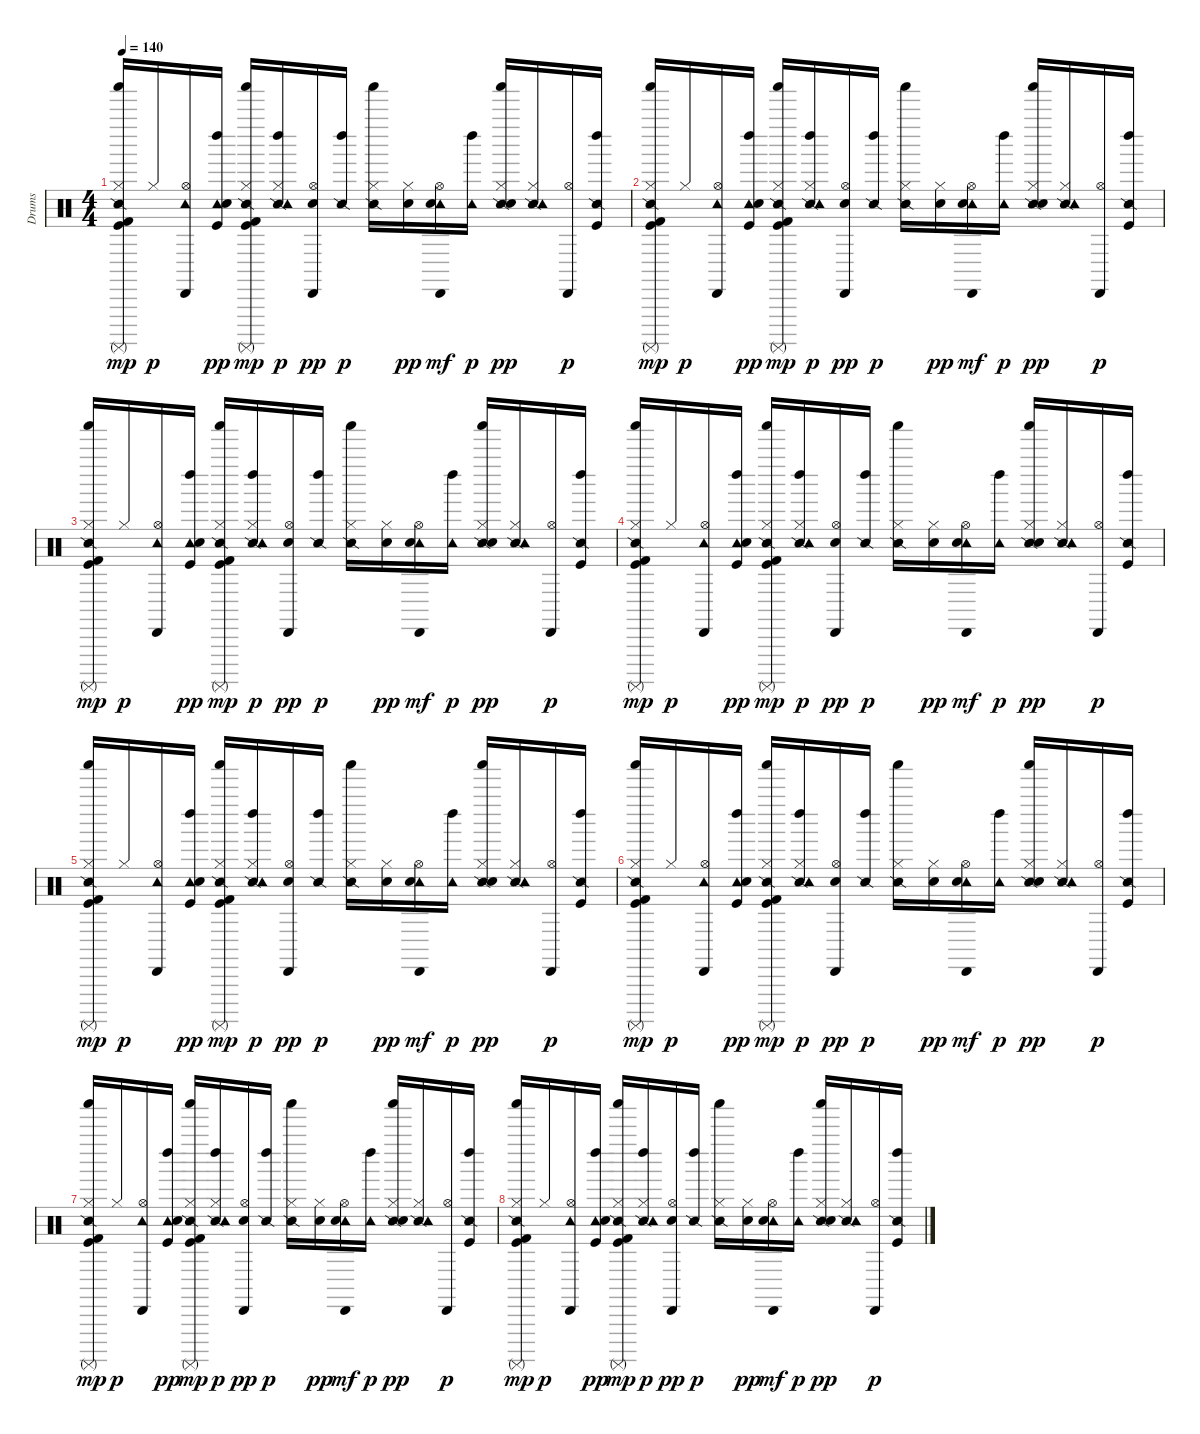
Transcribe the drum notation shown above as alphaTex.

\track ("Drums" "Drums") {instrument percussion}
\staff {score}
\articulation defaults
\ts (4 4)
\tempo 140
\clef neutral
\ks c
("Snare (side stick) 2" "Kick (hit)" "Kick (hit) 2" "Hi-Hat (closed)" "Shaker (hit)" "Surdo (mute)").16{dy mp} "Hi-Hat (closed)".16{dy p} ("Hi-Hat (open)" "Tambourine (hit)" "Cabasa (hit)").16 ("Kick (hit)" "Tambourine (hit)" "Left Maraca (hit)" "Electric Snare (hit)").16{dy pp} ("Snare (side stick) 2" "Kick (hit)" "Kick (hit) 2" "Hi-Hat (closed)" "Shaker (hit)" "Surdo (mute)").16{dy mp} ("Snare (side stick) 2" "Hi-Hat (closed)" "Tambourine (hit)" "Left Maraca (hit)").16{dy p} ("Hi-Hat (open)" "Cabasa (hit)" "Snare (hit) 2").16{dy pp} ("Snare (side stick) 2" "Left Maraca (hit)").16{dy p} ("Snare (side stick) 2" "Hi-Hat (closed)" "Shaker (hit)").16 ("Hi-Hat (closed)" "Electric Snare (hit)").16{dy pp} ("Hi-Hat (open)" "Tambourine (hit)" "Cabasa (hit)" "Snare (hit) 2").16{dy mf} ("Tambourine (hit)" "Left Maraca (hit)").16{dy p} ("Snare (side stick) 2" "Hi-Hat (closed)" "Shaker (hit)" "Electric Snare (hit)").16{dy pp} ("Snare (side stick) 2" "Hi-Hat (closed)" "Tambourine (hit)").16 ("Hi-Hat (open)" "Cabasa (hit)").16{dy p} ("Snare (side stick) 2" "Kick (hit)" "Left Maraca (hit)").16 |
("Snare (side stick) 2" "Kick (hit)" "Kick (hit) 2" "Hi-Hat (closed)" "Shaker (hit)" "Surdo (mute)").16{dy mp} "Hi-Hat (closed)".16{dy p} ("Hi-Hat (open)" "Tambourine (hit)" "Cabasa (hit)").16 ("Kick (hit)" "Tambourine (hit)" "Left Maraca (hit)" "Electric Snare (hit)").16{dy pp} ("Snare (side stick) 2" "Kick (hit)" "Kick (hit) 2" "Hi-Hat (closed)" "Shaker (hit)" "Surdo (mute)").16{dy mp} ("Snare (side stick) 2" "Hi-Hat (closed)" "Tambourine (hit)" "Left Maraca (hit)").16{dy p} ("Hi-Hat (open)" "Cabasa (hit)" "Snare (hit) 2").16{dy pp} ("Snare (side stick) 2" "Left Maraca (hit)").16{dy p} ("Snare (side stick) 2" "Hi-Hat (closed)" "Shaker (hit)").16 ("Hi-Hat (closed)" "Electric Snare (hit)").16{dy pp} ("Hi-Hat (open)" "Tambourine (hit)" "Cabasa (hit)" "Snare (hit) 2").16{dy mf} ("Tambourine (hit)" "Left Maraca (hit)").16{dy p} ("Snare (side stick) 2" "Hi-Hat (closed)" "Shaker (hit)" "Electric Snare (hit)").16{dy pp} ("Snare (side stick) 2" "Hi-Hat (closed)" "Tambourine (hit)").16 ("Hi-Hat (open)" "Cabasa (hit)").16{dy p} ("Snare (side stick) 2" "Kick (hit)" "Left Maraca (hit)").16 |
("Snare (side stick) 2" "Kick (hit)" "Kick (hit) 2" "Hi-Hat (closed)" "Shaker (hit)" "Surdo (mute)").16{dy mp} "Hi-Hat (closed)".16{dy p} ("Hi-Hat (open)" "Tambourine (hit)" "Cabasa (hit)").16 ("Kick (hit)" "Tambourine (hit)" "Left Maraca (hit)" "Electric Snare (hit)").16{dy pp} ("Snare (side stick) 2" "Kick (hit)" "Kick (hit) 2" "Hi-Hat (closed)" "Shaker (hit)" "Surdo (mute)").16{dy mp} ("Snare (side stick) 2" "Hi-Hat (closed)" "Tambourine (hit)" "Left Maraca (hit)").16{dy p} ("Hi-Hat (open)" "Cabasa (hit)" "Snare (hit) 2").16{dy pp} ("Snare (side stick) 2" "Left Maraca (hit)").16{dy p} ("Snare (side stick) 2" "Hi-Hat (closed)" "Shaker (hit)").16 ("Hi-Hat (closed)" "Electric Snare (hit)").16{dy pp} ("Hi-Hat (open)" "Tambourine (hit)" "Cabasa (hit)" "Snare (hit) 2").16{dy mf} ("Tambourine (hit)" "Left Maraca (hit)").16{dy p} ("Snare (side stick) 2" "Hi-Hat (closed)" "Shaker (hit)" "Electric Snare (hit)").16{dy pp} ("Snare (side stick) 2" "Hi-Hat (closed)" "Tambourine (hit)").16 ("Hi-Hat (open)" "Cabasa (hit)").16{dy p} ("Snare (side stick) 2" "Kick (hit)" "Left Maraca (hit)").16 |
("Snare (side stick) 2" "Kick (hit)" "Kick (hit) 2" "Hi-Hat (closed)" "Shaker (hit)" "Surdo (mute)").16{dy mp} "Hi-Hat (closed)".16{dy p} ("Hi-Hat (open)" "Tambourine (hit)" "Cabasa (hit)").16 ("Kick (hit)" "Tambourine (hit)" "Left Maraca (hit)" "Electric Snare (hit)").16{dy pp} ("Snare (side stick) 2" "Kick (hit)" "Kick (hit) 2" "Hi-Hat (closed)" "Shaker (hit)" "Surdo (mute)").16{dy mp} ("Snare (side stick) 2" "Hi-Hat (closed)" "Tambourine (hit)" "Left Maraca (hit)").16{dy p} ("Hi-Hat (open)" "Cabasa (hit)" "Snare (hit) 2").16{dy pp} ("Snare (side stick) 2" "Left Maraca (hit)").16{dy p} ("Snare (side stick) 2" "Hi-Hat (closed)" "Shaker (hit)").16 ("Hi-Hat (closed)" "Electric Snare (hit)").16{dy pp} ("Hi-Hat (open)" "Tambourine (hit)" "Cabasa (hit)" "Snare (hit) 2").16{dy mf} ("Tambourine (hit)" "Left Maraca (hit)").16{dy p} ("Snare (side stick) 2" "Hi-Hat (closed)" "Shaker (hit)" "Electric Snare (hit)").16{dy pp} ("Snare (side stick) 2" "Hi-Hat (closed)" "Tambourine (hit)").16 ("Hi-Hat (open)" "Cabasa (hit)").16{dy p} ("Snare (side stick) 2" "Kick (hit)" "Left Maraca (hit)").16 |
("Snare (side stick) 2" "Kick (hit)" "Kick (hit) 2" "Hi-Hat (closed)" "Shaker (hit)" "Surdo (mute)").16{dy mp} "Hi-Hat (closed)".16{dy p} ("Hi-Hat (open)" "Tambourine (hit)" "Cabasa (hit)").16 ("Kick (hit)" "Tambourine (hit)" "Left Maraca (hit)" "Electric Snare (hit)").16{dy pp} ("Snare (side stick) 2" "Kick (hit)" "Kick (hit) 2" "Hi-Hat (closed)" "Shaker (hit)" "Surdo (mute)").16{dy mp} ("Snare (side stick) 2" "Hi-Hat (closed)" "Tambourine (hit)" "Left Maraca (hit)").16{dy p} ("Hi-Hat (open)" "Cabasa (hit)" "Snare (hit) 2").16{dy pp} ("Snare (side stick) 2" "Left Maraca (hit)").16{dy p} ("Snare (side stick) 2" "Hi-Hat (closed)" "Shaker (hit)").16 ("Hi-Hat (closed)" "Electric Snare (hit)").16{dy pp} ("Hi-Hat (open)" "Tambourine (hit)" "Cabasa (hit)" "Snare (hit) 2").16{dy mf} ("Tambourine (hit)" "Left Maraca (hit)").16{dy p} ("Snare (side stick) 2" "Hi-Hat (closed)" "Shaker (hit)" "Electric Snare (hit)").16{dy pp} ("Snare (side stick) 2" "Hi-Hat (closed)" "Tambourine (hit)").16 ("Hi-Hat (open)" "Cabasa (hit)").16{dy p} ("Snare (side stick) 2" "Kick (hit)" "Left Maraca (hit)").16 |
("Snare (side stick) 2" "Kick (hit)" "Kick (hit) 2" "Hi-Hat (closed)" "Shaker (hit)" "Surdo (mute)").16{dy mp} "Hi-Hat (closed)".16{dy p} ("Hi-Hat (open)" "Tambourine (hit)" "Cabasa (hit)").16 ("Kick (hit)" "Tambourine (hit)" "Left Maraca (hit)" "Electric Snare (hit)").16{dy pp} ("Snare (side stick) 2" "Kick (hit)" "Kick (hit) 2" "Hi-Hat (closed)" "Shaker (hit)" "Surdo (mute)").16{dy mp} ("Snare (side stick) 2" "Hi-Hat (closed)" "Tambourine (hit)" "Left Maraca (hit)").16{dy p} ("Hi-Hat (open)" "Cabasa (hit)" "Snare (hit) 2").16{dy pp} ("Snare (side stick) 2" "Left Maraca (hit)").16{dy p} ("Snare (side stick) 2" "Hi-Hat (closed)" "Shaker (hit)").16 ("Hi-Hat (closed)" "Electric Snare (hit)").16{dy pp} ("Hi-Hat (open)" "Tambourine (hit)" "Cabasa (hit)" "Snare (hit) 2").16{dy mf} ("Tambourine (hit)" "Left Maraca (hit)").16{dy p} ("Snare (side stick) 2" "Hi-Hat (closed)" "Shaker (hit)" "Electric Snare (hit)").16{dy pp} ("Snare (side stick) 2" "Hi-Hat (closed)" "Tambourine (hit)").16 ("Hi-Hat (open)" "Cabasa (hit)").16{dy p} ("Snare (side stick) 2" "Kick (hit)" "Left Maraca (hit)").16 |
("Snare (side stick) 2" "Kick (hit)" "Kick (hit) 2" "Hi-Hat (closed)" "Shaker (hit)" "Surdo (mute)").16{dy mp} "Hi-Hat (closed)".16{dy p} ("Hi-Hat (open)" "Tambourine (hit)" "Cabasa (hit)").16 ("Kick (hit)" "Tambourine (hit)" "Left Maraca (hit)" "Electric Snare (hit)").16{dy pp} ("Snare (side stick) 2" "Kick (hit)" "Kick (hit) 2" "Hi-Hat (closed)" "Shaker (hit)" "Surdo (mute)").16{dy mp} ("Snare (side stick) 2" "Hi-Hat (closed)" "Tambourine (hit)" "Left Maraca (hit)").16{dy p} ("Hi-Hat (open)" "Cabasa (hit)" "Snare (hit) 2").16{dy pp} ("Snare (side stick) 2" "Left Maraca (hit)").16{dy p} ("Snare (side stick) 2" "Hi-Hat (closed)" "Shaker (hit)").16 ("Hi-Hat (closed)" "Electric Snare (hit)").16{dy pp} ("Hi-Hat (open)" "Tambourine (hit)" "Cabasa (hit)" "Snare (hit) 2").16{dy mf} ("Tambourine (hit)" "Left Maraca (hit)").16{dy p} ("Snare (side stick) 2" "Hi-Hat (closed)" "Shaker (hit)" "Electric Snare (hit)").16{dy pp} ("Snare (side stick) 2" "Hi-Hat (closed)" "Tambourine (hit)").16 ("Hi-Hat (open)" "Cabasa (hit)").16{dy p} ("Snare (side stick) 2" "Kick (hit)" "Left Maraca (hit)").16 |
("Snare (side stick) 2" "Kick (hit)" "Kick (hit) 2" "Hi-Hat (closed)" "Shaker (hit)" "Surdo (mute)").16{dy mp} "Hi-Hat (closed)".16{dy p} ("Hi-Hat (open)" "Tambourine (hit)" "Cabasa (hit)").16 ("Kick (hit)" "Tambourine (hit)" "Left Maraca (hit)" "Electric Snare (hit)").16{dy pp} ("Snare (side stick) 2" "Kick (hit)" "Kick (hit) 2" "Hi-Hat (closed)" "Shaker (hit)" "Surdo (mute)").16{dy mp} ("Snare (side stick) 2" "Hi-Hat (closed)" "Tambourine (hit)" "Left Maraca (hit)").16{dy p} ("Hi-Hat (open)" "Cabasa (hit)" "Snare (hit) 2").16{dy pp} ("Snare (side stick) 2" "Left Maraca (hit)").16{dy p} ("Snare (side stick) 2" "Hi-Hat (closed)" "Shaker (hit)").16 ("Hi-Hat (closed)" "Electric Snare (hit)").16{dy pp} ("Hi-Hat (open)" "Tambourine (hit)" "Cabasa (hit)" "Snare (hit) 2").16{dy mf} ("Tambourine (hit)" "Left Maraca (hit)").16{dy p} ("Snare (side stick) 2" "Hi-Hat (closed)" "Shaker (hit)" "Electric Snare (hit)").16{dy pp} ("Snare (side stick) 2" "Hi-Hat (closed)" "Tambourine (hit)").16 ("Hi-Hat (open)" "Cabasa (hit)").16{dy p} ("Snare (side stick) 2" "Kick (hit)" "Left Maraca (hit)").16
